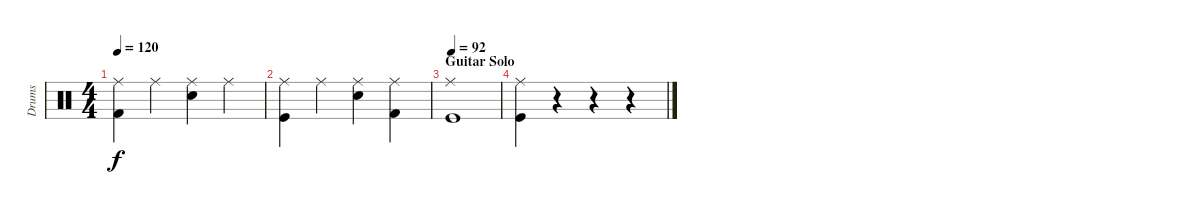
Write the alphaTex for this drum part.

\track ("Drums" "Drums") {instrument percussion}
\staff {score}
\articulation defaults
\ts (4 4)
\tempo 120
\clef neutral
\ks c
("Ride (middle)" "Kick (hit) 2").4{dy f} "Ride (middle)".4 ("Ride (middle)" "Electric Snare (hit)").4 "Ride (middle)".4 |
("Ride (middle)" "Kick (hit)").4 "Ride (middle)".4 ("Ride (middle)" "Electric Snare (hit)").4 ("Ride (middle)" "Kick (hit) 2").4 |
\section ("" "Guitar Solo")
\tempo 92
("Ride (middle)" "Kick (hit)").1 |
("Ride (middle)" "Kick (hit)").4 r.4 r.4 r.4
